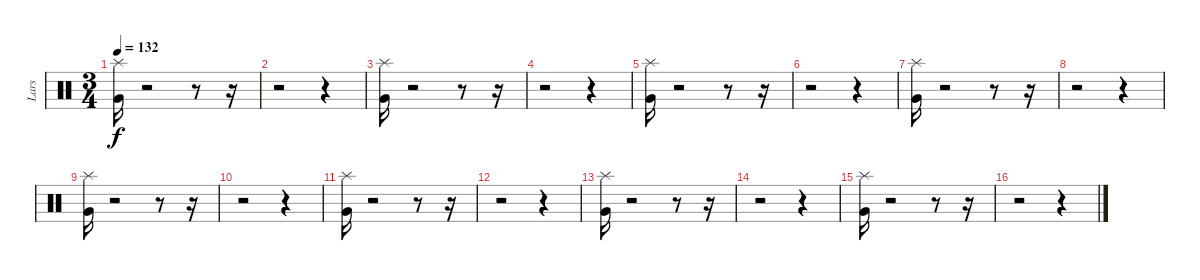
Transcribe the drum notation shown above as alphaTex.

\track ("Lars" "Lars") {instrument percussion}
\staff {score}
\articulation defaults
\ts (3 4)
\tempo 132
\clef neutral
\ks c
("Very Low Tom (hit)" "Splash (hit)").16{dy f} r.2 r.8 r.16 |
r.2 r.4 |
("Very Low Tom (hit)" "Splash (hit)").16 r.2 r.8 r.16 |
r.2 r.4 |
("Very Low Tom (hit)" "Splash (hit)").16 r.2 r.8 r.16 |
r.2 r.4 |
("Very Low Tom (hit)" "Splash (hit)").16 r.2 r.8 r.16 |
r.2 r.4 |
("Very Low Tom (hit)" "Splash (hit)").16 r.2 r.8 r.16 |
r.2 r.4 |
("Very Low Tom (hit)" "Splash (hit)").16 r.2 r.8 r.16 |
r.2 r.4 |
("Very Low Tom (hit)" "Splash (hit)").16 r.2 r.8 r.16 |
r.2 r.4 |
("Very Low Tom (hit)" "Splash (hit)").16 r.2 r.8 r.16 |
r.2 r.4
